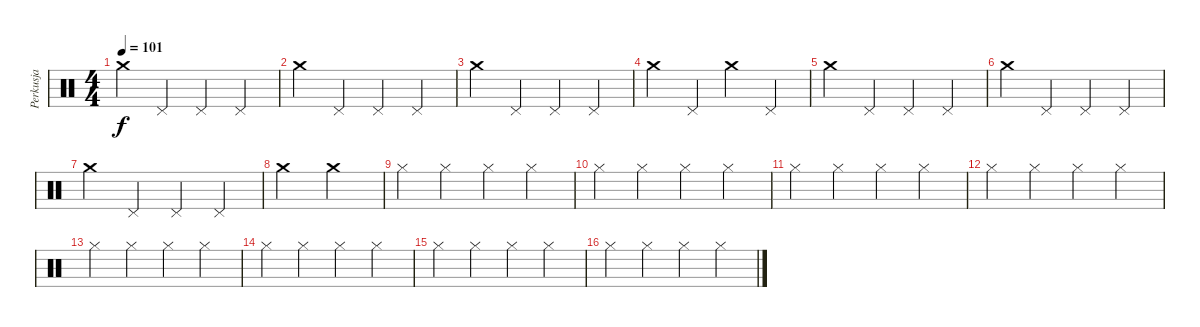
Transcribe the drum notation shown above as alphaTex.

\track ("Perkusja" "Perkusja") {instrument percussion}
\staff {score}
\articulation defaults
\ts (4 4)
\tempo 101
\clef neutral
\ks c "Crash medium (hit)".4{dy f} "Pedal Hi-Hat (hit)".4 "Pedal Hi-Hat (hit)".4 "Pedal Hi-Hat (hit)".4
|
"Crash medium (hit)".4 "Pedal Hi-Hat (hit)".4 "Pedal Hi-Hat (hit)".4 "Pedal Hi-Hat (hit)".4 |
"Crash medium (hit)".4 "Pedal Hi-Hat (hit)".4 "Pedal Hi-Hat (hit)".4 "Pedal Hi-Hat (hit)".4 |
"Crash medium (hit)".4 "Pedal Hi-Hat (hit)".4 "Crash medium (hit)".4 "Pedal Hi-Hat (hit)".4 |
"Crash medium (hit)".4 "Pedal Hi-Hat (hit)".4 "Pedal Hi-Hat (hit)".4 "Pedal Hi-Hat (hit)".4 |
"Crash medium (hit)".4 "Pedal Hi-Hat (hit)".4 "Pedal Hi-Hat (hit)".4 "Pedal Hi-Hat (hit)".4 |
"Crash medium (hit)".4 "Pedal Hi-Hat (hit)".4 "Pedal Hi-Hat (hit)".4 "Pedal Hi-Hat (hit)".4 |
"Crash medium (hit)".2 "Crash medium (hit)".2 |
"Hi-Hat (closed)".4 "Hi-Hat (closed)".4 "Hi-Hat (closed)".4 "Hi-Hat (closed)".4 |
"Hi-Hat (closed)".4 "Hi-Hat (closed)".4 "Hi-Hat (closed)".4 "Hi-Hat (closed)".4 |
"Hi-Hat (closed)".4 "Hi-Hat (closed)".4 "Hi-Hat (closed)".4 "Hi-Hat (closed)".4 |
"Hi-Hat (closed)".4 "Hi-Hat (closed)".4 "Hi-Hat (closed)".4 "Hi-Hat (closed)".4 |
"Hi-Hat (closed)".4 "Hi-Hat (closed)".4 "Hi-Hat (closed)".4 "Hi-Hat (closed)".4 |
"Hi-Hat (closed)".4 "Hi-Hat (closed)".4 "Hi-Hat (closed)".4 "Hi-Hat (closed)".4 |
"Hi-Hat (closed)".4 "Hi-Hat (closed)".4 "Hi-Hat (closed)".4 "Hi-Hat (closed)".4 |
"Hi-Hat (closed)".4 "Hi-Hat (closed)".4 "Hi-Hat (closed)".4 "Hi-Hat (closed)".4
